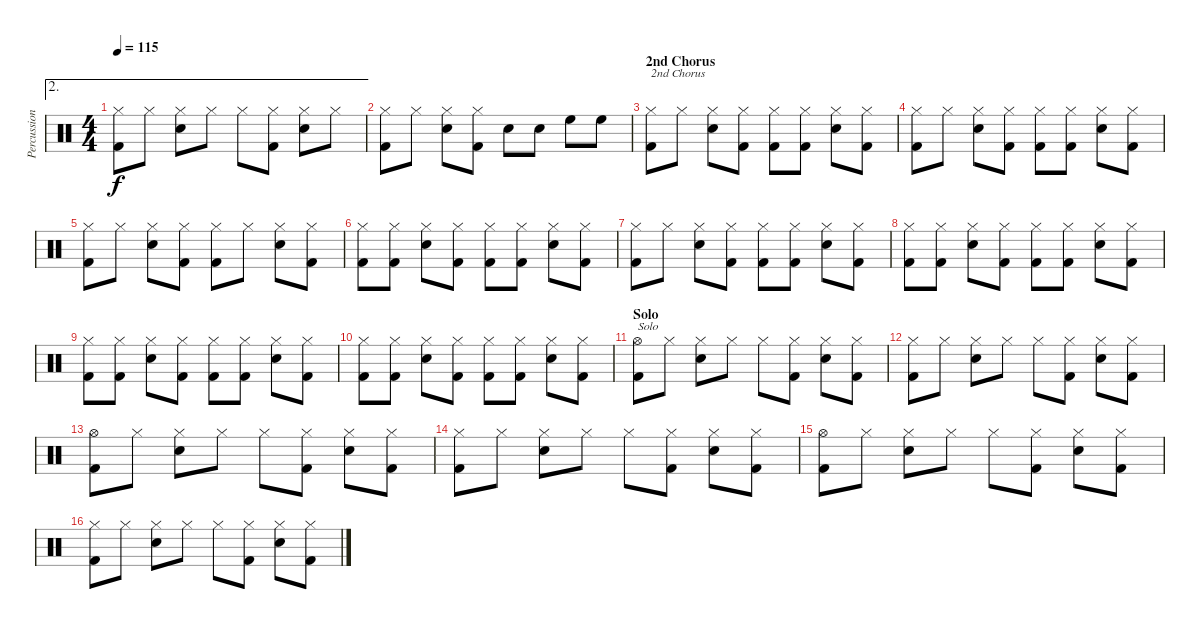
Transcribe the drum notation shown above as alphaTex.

\track ("Percussions" "Percussion") {instrument percussion}
\staff {score}
\articulation defaults
\ae 2
\ts (4 4)
\tempo 115
\clef neutral
\ks c
("Hi-Hat (closed)" "Kick (hit) 2").8{dy f} "Hi-Hat (closed)".8 ("Hi-Hat (closed)" "Snare (hit) 2").8 "Hi-Hat (closed)".8 "Hi-Hat (closed)".8 ("Hi-Hat (closed)" "Kick (hit) 2").8 ("Hi-Hat (closed)" "Snare (hit) 2").8 "Hi-Hat (closed)".8 |
("Hi-Hat (closed)" "Kick (hit) 2").8 "Hi-Hat (closed)".8 ("Hi-Hat (closed)" "Snare (hit) 2").8 ("Hi-Hat (closed)" "Kick (hit) 2").8 "Snare (hit) 2".8 "Snare (hit) 2".8 "High Floor Tom (hit)".8 "High Floor Tom (hit)".8 |
\section ("" "2nd Chorus")
("Hi-Hat (closed)" "Kick (hit) 2").8{txt "2nd Chorus"} "Hi-Hat (closed)".8 ("Hi-Hat (closed)" "Snare (hit) 2").8 ("Hi-Hat (closed)" "Kick (hit) 2").8 ("Hi-Hat (closed)" "Kick (hit) 2").8 ("Hi-Hat (closed)" "Kick (hit) 2").8 ("Hi-Hat (closed)" "Snare (hit) 2").8 ("Hi-Hat (closed)" "Kick (hit) 2").8 |
("Hi-Hat (closed)" "Kick (hit) 2").8 "Hi-Hat (closed)".8 ("Hi-Hat (closed)" "Snare (hit) 2").8 ("Hi-Hat (closed)" "Kick (hit) 2").8 ("Hi-Hat (closed)" "Kick (hit) 2").8 ("Hi-Hat (closed)" "Kick (hit) 2").8 ("Hi-Hat (closed)" "Snare (hit) 2").8 ("Hi-Hat (closed)" "Kick (hit) 2").8 |
("Hi-Hat (closed)" "Kick (hit) 2").8 "Hi-Hat (closed)".8 ("Hi-Hat (closed)" "Snare (hit) 2").8 ("Hi-Hat (closed)" "Kick (hit) 2").8 ("Hi-Hat (closed)" "Kick (hit) 2").8 "Hi-Hat (closed)".8 ("Hi-Hat (closed)" "Snare (hit) 2").8 ("Hi-Hat (closed)" "Kick (hit) 2").8 |
("Hi-Hat (closed)" "Kick (hit) 2").8 ("Hi-Hat (closed)" "Kick (hit) 2").8 ("Hi-Hat (closed)" "Snare (hit) 2").8 ("Hi-Hat (closed)" "Kick (hit) 2").8 ("Hi-Hat (closed)" "Kick (hit) 2").8 ("Hi-Hat (closed)" "Kick (hit) 2").8 ("Hi-Hat (closed)" "Snare (hit) 2").8 ("Hi-Hat (closed)" "Kick (hit) 2").8 |
("Hi-Hat (closed)" "Kick (hit) 2").8 "Hi-Hat (closed)".8 ("Hi-Hat (closed)" "Snare (hit) 2").8 ("Hi-Hat (closed)" "Kick (hit) 2").8 ("Hi-Hat (closed)" "Kick (hit) 2").8 ("Hi-Hat (closed)" "Kick (hit) 2").8 ("Hi-Hat (closed)" "Snare (hit) 2").8 ("Hi-Hat (closed)" "Kick (hit) 2").8 |
("Hi-Hat (closed)" "Kick (hit) 2").8 ("Hi-Hat (closed)" "Kick (hit) 2").8 ("Hi-Hat (closed)" "Snare (hit) 2").8 ("Hi-Hat (closed)" "Kick (hit) 2").8 ("Hi-Hat (closed)" "Kick (hit) 2").8 ("Hi-Hat (closed)" "Kick (hit) 2").8 ("Hi-Hat (closed)" "Snare (hit) 2").8 ("Hi-Hat (closed)" "Kick (hit) 2").8 |
("Hi-Hat (closed)" "Kick (hit) 2").8 ("Hi-Hat (closed)" "Kick (hit) 2").8 ("Hi-Hat (closed)" "Snare (hit) 2").8 ("Hi-Hat (closed)" "Kick (hit) 2").8 ("Hi-Hat (closed)" "Kick (hit) 2").8 ("Hi-Hat (closed)" "Kick (hit) 2").8 ("Hi-Hat (closed)" "Snare (hit) 2").8 ("Hi-Hat (closed)" "Kick (hit) 2").8 |
("Hi-Hat (closed)" "Kick (hit) 2").8 ("Hi-Hat (closed)" "Kick (hit) 2").8 ("Hi-Hat (closed)" "Snare (hit) 2").8 ("Hi-Hat (closed)" "Kick (hit) 2").8 ("Hi-Hat (closed)" "Kick (hit) 2").8 ("Hi-Hat (closed)" "Kick (hit) 2").8 ("Hi-Hat (closed)" "Snare (hit) 2").8 ("Hi-Hat (closed)" "Kick (hit) 2").8 |
\section ("" "Solo")
("Hi-Hat (open)" "Kick (hit) 2").8{txt "Solo"} "Hi-Hat (closed)".8 ("Hi-Hat (closed)" "Snare (hit) 2").8 "Hi-Hat (closed)".8 "Hi-Hat (closed)".8 ("Hi-Hat (closed)" "Kick (hit) 2").8 ("Hi-Hat (closed)" "Snare (hit) 2").8 ("Hi-Hat (closed)" "Kick (hit) 2").8 |
("Hi-Hat (closed)" "Kick (hit) 2").8 "Hi-Hat (closed)".8 ("Hi-Hat (closed)" "Snare (hit) 2").8 "Hi-Hat (closed)".8 "Hi-Hat (closed)".8 ("Hi-Hat (closed)" "Kick (hit) 2").8 ("Hi-Hat (closed)" "Snare (hit) 2").8 ("Hi-Hat (closed)" "Kick (hit) 2").8 |
("Hi-Hat (open)" "Kick (hit) 2").8 "Hi-Hat (closed)".8 ("Hi-Hat (closed)" "Snare (hit) 2").8 "Hi-Hat (closed)".8 "Hi-Hat (closed)".8 ("Hi-Hat (closed)" "Kick (hit) 2").8 ("Hi-Hat (closed)" "Snare (hit) 2").8 ("Hi-Hat (closed)" "Kick (hit) 2").8 |
("Hi-Hat (closed)" "Kick (hit) 2").8 "Hi-Hat (closed)".8 ("Hi-Hat (closed)" "Snare (hit) 2").8 "Hi-Hat (closed)".8 "Hi-Hat (closed)".8 ("Hi-Hat (closed)" "Kick (hit) 2").8 ("Hi-Hat (closed)" "Snare (hit) 2").8 ("Hi-Hat (closed)" "Kick (hit) 2").8 |
("Hi-Hat (open)" "Kick (hit) 2").8 "Hi-Hat (closed)".8 ("Hi-Hat (closed)" "Snare (hit) 2").8 "Hi-Hat (closed)".8 "Hi-Hat (closed)".8 ("Hi-Hat (closed)" "Kick (hit) 2").8 ("Hi-Hat (closed)" "Snare (hit) 2").8 ("Hi-Hat (closed)" "Kick (hit) 2").8 |
("Hi-Hat (closed)" "Kick (hit) 2").8 "Hi-Hat (closed)".8 ("Hi-Hat (closed)" "Snare (hit) 2").8 "Hi-Hat (closed)".8 "Hi-Hat (closed)".8 ("Hi-Hat (closed)" "Kick (hit) 2").8 ("Hi-Hat (closed)" "Snare (hit) 2").8 ("Hi-Hat (closed)" "Kick (hit) 2").8
